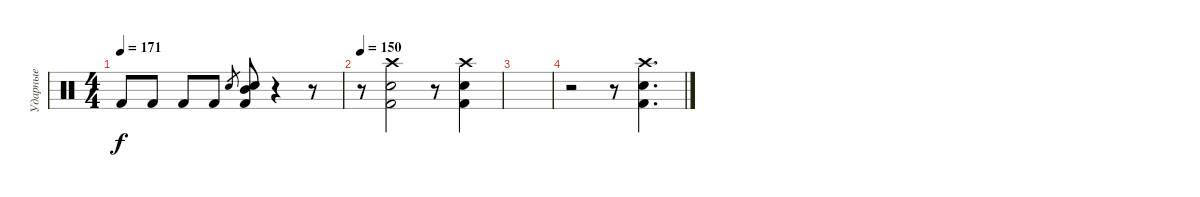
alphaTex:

\track ("Ударные" "Ударные") {instrument percussion}
\staff
\articulation defaults
\ts (4 4)
\tempo 171
\clef neutral
\ks c "Kick (hit) 2".8{dy f} "Kick (hit) 2".8 "Kick (hit) 2".8 "Kick (hit) 2".8 "Snare (hit) 2".8{gr}
("Kick (hit) 2" "Snare (hit) 2" "Mid Tom (hit)").8 r.4 r.8 |
\tempo 150
r.8 ("Kick (hit) 2" "Snare (hit) 2" "Crash high (hit)").2 r.8 ("Kick (hit) 2" "Snare (hit) 2" "Crash high (hit)").4 |
|
r.2 r.8 ("Kick (hit) 2" "Snare (hit) 2" "Crash high (hit)").4{d}
